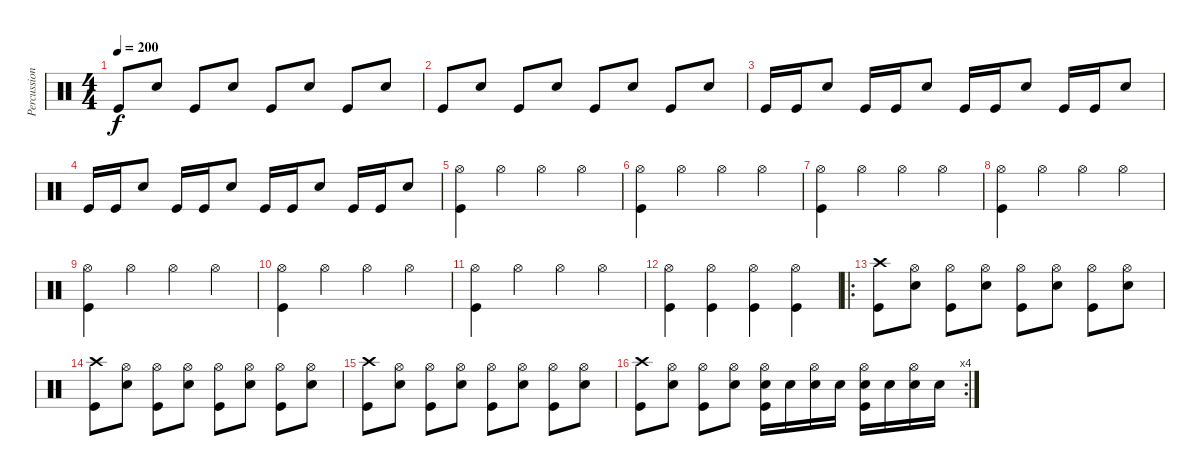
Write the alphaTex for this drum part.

\track ("Percussion" "Percussion") {instrument percussion}
\staff {score}
\articulation defaults
\ts (4 4)
\tempo 200
\clef neutral
\ks c "Kick (hit)".8{dy f} "Snare (hit) 2".8 "Kick (hit)".8 "Snare (hit) 2".8 "Kick (hit)".8 "Snare (hit) 2".8 "Kick (hit)".8 "Snare (hit) 2".8
|
"Kick (hit)".8 "Snare (hit) 2".8 "Kick (hit)".8 "Snare (hit) 2".8 "Kick (hit)".8 "Snare (hit) 2".8 "Kick (hit)".8 "Snare (hit) 2".8 |
"Kick (hit)".16 "Kick (hit)".16 "Snare (hit) 2".8 "Kick (hit)".16 "Kick (hit)".16 "Snare (hit) 2".8 "Kick (hit)".16 "Kick (hit)".16 "Snare (hit) 2".8 "Kick (hit)".16 "Kick (hit)".16 "Snare (hit) 2".8 |
"Kick (hit)".16 "Kick (hit)".16 "Snare (hit) 2".8 "Kick (hit)".16 "Kick (hit)".16 "Snare (hit) 2".8 "Kick (hit)".16 "Kick (hit)".16 "Snare (hit) 2".8 "Kick (hit)".16 "Kick (hit)".16 "Snare (hit) 2".8 |
("Hi-Hat (open)" "Kick (hit)").4 "Hi-Hat (open)".4 "Hi-Hat (open)".4 "Hi-Hat (open)".4 |
("Hi-Hat (open)" "Kick (hit)").4 "Hi-Hat (open)".4 "Hi-Hat (open)".4 "Hi-Hat (open)".4 |
("Hi-Hat (open)" "Kick (hit)").4 "Hi-Hat (open)".4 "Hi-Hat (open)".4 "Hi-Hat (open)".4 |
("Hi-Hat (open)" "Kick (hit)").4 "Hi-Hat (open)".4 "Hi-Hat (open)".4 "Hi-Hat (open)".4 |
("Hi-Hat (open)" "Kick (hit)").4 "Hi-Hat (open)".4 "Hi-Hat (open)".4 "Hi-Hat (open)".4 |
("Hi-Hat (open)" "Kick (hit)").4 "Hi-Hat (open)".4 "Hi-Hat (open)".4 "Hi-Hat (open)".4 |
("Hi-Hat (open)" "Kick (hit)").4 "Hi-Hat (open)".4 "Hi-Hat (open)".4 "Hi-Hat (open)".4 |
("Hi-Hat (open)" "Kick (hit)").4 ("Hi-Hat (open)" "Kick (hit)").4 ("Hi-Hat (open)" "Kick (hit)").4 ("Hi-Hat (open)" "Kick (hit)").4 |
\ro
("Crash high (hit)" "Kick (hit)").8 ("Hi-Hat (open)" "Snare (hit) 2").8 ("Hi-Hat (open)" "Kick (hit)").8 ("Hi-Hat (open)" "Snare (hit) 2").8 ("Hi-Hat (open)" "Kick (hit)").8 ("Hi-Hat (open)" "Snare (hit) 2").8 ("Hi-Hat (open)" "Kick (hit)").8 ("Hi-Hat (open)" "Snare (hit) 2").8 |
("Crash high (hit)" "Kick (hit)").8 ("Hi-Hat (open)" "Snare (hit) 2").8 ("Hi-Hat (open)" "Kick (hit)").8 ("Hi-Hat (open)" "Snare (hit) 2").8 ("Hi-Hat (open)" "Kick (hit)").8 ("Hi-Hat (open)" "Snare (hit) 2").8 ("Hi-Hat (open)" "Kick (hit)").8 ("Hi-Hat (open)" "Snare (hit) 2").8 |
("Crash high (hit)" "Kick (hit)").8 ("Hi-Hat (open)" "Snare (hit) 2").8 ("Hi-Hat (open)" "Kick (hit)").8 ("Hi-Hat (open)" "Snare (hit) 2").8 ("Hi-Hat (open)" "Kick (hit)").8 ("Hi-Hat (open)" "Snare (hit) 2").8 ("Hi-Hat (open)" "Kick (hit)").8 ("Hi-Hat (open)" "Snare (hit) 2").8 |
\rc 4
("Crash high (hit)" "Kick (hit)").8 ("Hi-Hat (open)" "Snare (hit) 2").8 ("Hi-Hat (open)" "Kick (hit)").8 ("Hi-Hat (open)" "Snare (hit) 2").8 ("Hi-Hat (open)" "Snare (hit) 2" "Kick (hit)").16 "Snare (hit) 2".16 ("Hi-Hat (open)" "Snare (hit) 2").16 "Snare (hit) 2".16 ("Hi-Hat (open)" "Snare (hit) 2" "Kick (hit)").16 "Snare (hit) 2".16 ("Hi-Hat (open)" "Snare (hit) 2").16 "Snare (hit) 2".16
